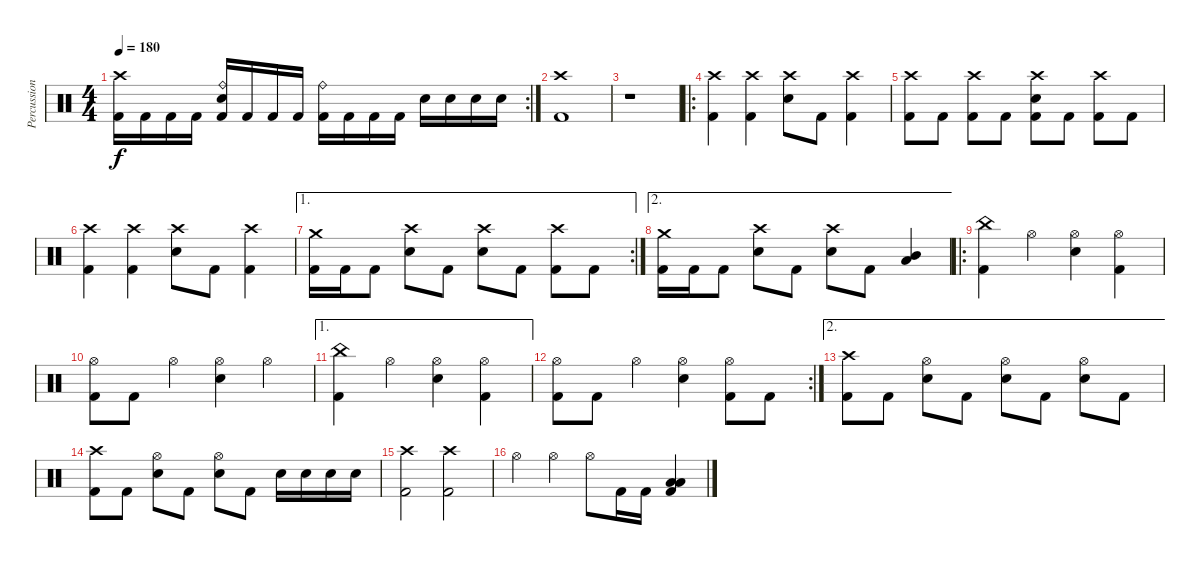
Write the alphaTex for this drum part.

\track ("Percussions" "Percussion") {instrument percussion}
\staff {score}
\articulation defaults
\rc 2
\ts (4 4)
\tempo 180
\clef neutral
\ks c
("Crash high (hit)" "Kick (hit) 2").16{dy f} "Kick (hit) 2".16 "Kick (hit) 2".16 "Kick (hit) 2".16 ("Ride (bell)" "Snare (hit) 2" "Kick (hit) 2").16 "Kick (hit) 2".16 "Kick (hit) 2".16 "Kick (hit) 2".16 ("Ride (bell)" "Kick (hit) 2").16 "Kick (hit) 2".16 "Kick (hit) 2".16 "Kick (hit) 2".16 "Snare (hit) 2".16 "Snare (hit) 2".16 "Snare (hit) 2".16 "Snare (hit) 2".16 |
("Crash high (hit)" "Kick (hit) 2").1 |
r.1 |
\ro
("Crash high (hit)" "Kick (hit) 2").4 ("Crash high (hit)" "Kick (hit) 2").4 ("Crash high (hit)" "Snare (hit) 2").8 "Kick (hit) 2".8 ("Crash high (hit)" "Kick (hit) 2").4 |
("Crash high (hit)" "Kick (hit) 2").8 "Kick (hit) 2".8 ("Crash high (hit)" "Kick (hit) 2").8 "Kick (hit) 2".8 ("Crash high (hit)" "Snare (hit) 2" "Kick (hit) 2").8 "Kick (hit) 2".8 ("Crash high (hit)" "Kick (hit) 2").8 "Kick (hit) 2".8 |
("Crash high (hit)" "Kick (hit) 2").4 ("Crash high (hit)" "Kick (hit) 2").4 ("Crash high (hit)" "Snare (hit) 2").8 "Kick (hit) 2".8 ("Crash high (hit)" "Kick (hit) 2").4 |
\ae 1
\rc 2
("Crash medium (hit)" "Kick (hit) 2").16 "Kick (hit) 2".16 "Kick (hit) 2".8 ("Crash high (hit)" "Snare (hit) 2").8 "Kick (hit) 2".8 ("Crash high (hit)" "Snare (hit) 2").8 "Kick (hit) 2".8 ("Crash high (hit)" "Kick (hit) 2").8 "Kick (hit) 2".8 |
\ae 2
("Crash medium (hit)" "Kick (hit) 2").16 "Kick (hit) 2".16 "Kick (hit) 2".8 ("Crash high (hit)" "Snare (hit) 2").8 "Kick (hit) 2".8 ("Crash high (hit)" "Snare (hit) 2").8 "Kick (hit) 2".8 ("Low Tom (hit)" "Mid Tom (hit)").4 |
\ro
("China (hit)" "Kick (hit) 2").4 "Hi-Hat (open)".4 ("Hi-Hat (open)" "Snare (hit) 2").4 ("Hi-Hat (open)" "Kick (hit) 2").4 |
("Hi-Hat (open)" "Kick (hit) 2").8 "Kick (hit) 2".8 "Hi-Hat (open)".4 ("Hi-Hat (open)" "Snare (hit) 2").4 "Hi-Hat (open)".4 |
\ae 1
("China (hit)" "Kick (hit) 2").4 "Hi-Hat (open)".4 ("Hi-Hat (open)" "Snare (hit) 2").4 ("Hi-Hat (open)" "Kick (hit) 2").4 |
\rc 2
("Hi-Hat (open)" "Kick (hit) 2").8 "Kick (hit) 2".8 "Hi-Hat (open)".4 ("Hi-Hat (open)" "Snare (hit) 2").4 ("Hi-Hat (open)" "Kick (hit) 2").8 "Kick (hit) 2".8 |
\ae 2
("Crash high (hit)" "Kick (hit) 2").8 "Kick (hit) 2".8 ("Hi-Hat (open)" "Snare (hit) 2").8 "Kick (hit) 2".8 ("Hi-Hat (open)" "Snare (hit) 2").8 "Kick (hit) 2".8 ("Hi-Hat (open)" "Snare (hit) 2").8 "Kick (hit) 2".8 |
("Crash high (hit)" "Kick (hit) 2").8 "Kick (hit) 2".8 ("Hi-Hat (open)" "Snare (hit) 2").8 "Kick (hit) 2".8 ("Hi-Hat (open)" "Snare (hit) 2").8 "Kick (hit) 2".8 "Snare (hit) 2".16 "Snare (hit) 2".16 "Snare (hit) 2".16 "Snare (hit) 2".16 |
("Crash high (hit)" "Kick (hit) 2").2 ("Crash high (hit)" "Kick (hit) 2").2 |
"Hi-Hat (open)".4 "Hi-Hat (open)".4 "Hi-Hat (open)".8 "Kick (hit) 2".16 "Kick (hit) 2".16 ("Low Floor Tom (hit)" "Low Floor Tom (hit)" "Kick (hit) 2").4
